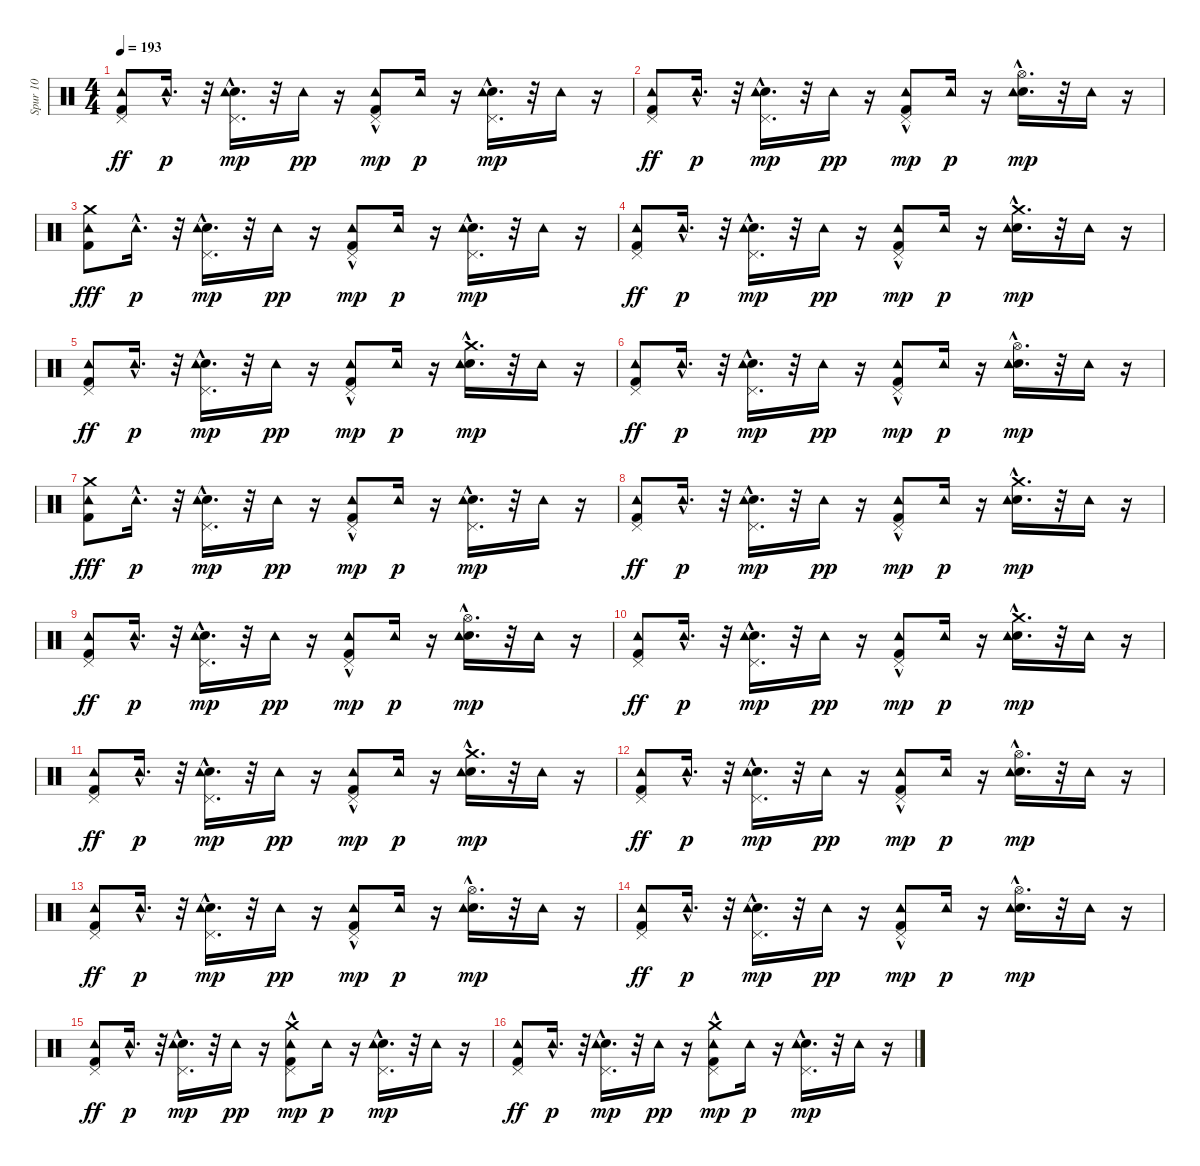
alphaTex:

\track ("Spur 10" "Spur 10") {instrument percussion}
\staff {score}
\articulation defaults
\ts (4 4)
\tempo 193
\clef neutral
\ks c
("Tambourine (hit)" "Kick (hit) 2" "Pedal Hi-Hat (hit)").8{dy ff} "Tambourine (hit)"{hac}.16{d dy p} r.32 ("Pedal Hi-Hat (hit)" "Snare (hit) 2"{hac} "Tambourine (hit)").16{d dy mp} r.32 "Tambourine (hit)".16{dy pp} r.16 ("Kick (hit) 2" "Pedal Hi-Hat (hit)" "Tambourine (hit)"{hac}).8{dy mp} "Tambourine (hit)".16{dy p} r.16 ("Snare (hit) 2"{hac} "Pedal Hi-Hat (hit)"{hac} "Tambourine (hit)").16{d dy mp} r.32 "Tambourine (hit)".16 r.16 |
("Tambourine (hit)" "Kick (hit) 2" "Pedal Hi-Hat (hit)").8{dy ff} "Tambourine (hit)"{hac}.16{d dy p} r.32 ("Pedal Hi-Hat (hit)" "Snare (hit) 2"{hac} "Tambourine (hit)").16{d dy mp} r.32 "Tambourine (hit)".16{dy pp} r.16 ("Kick (hit) 2" "Pedal Hi-Hat (hit)" "Tambourine (hit)"{hac}).8{dy mp} "Tambourine (hit)".16{dy p} r.16 ("Snare (hit) 2"{hac} "Hi-Hat (open)"{hac} "Tambourine (hit)").16{d dy mp} r.32 "Tambourine (hit)".16 r.16 |
("Tambourine (hit)" "Kick (hit) 2" "Crash medium (hit)").8{dy fff} "Tambourine (hit)"{hac}.16{d dy p} r.32 ("Pedal Hi-Hat (hit)" "Snare (hit) 2"{hac} "Tambourine (hit)").16{d dy mp} r.32 "Tambourine (hit)".16{dy pp} r.16 ("Kick (hit) 2" "Pedal Hi-Hat (hit)" "Tambourine (hit)"{hac}).8{dy mp} "Tambourine (hit)".16{dy p} r.16 ("Snare (hit) 2"{hac} "Pedal Hi-Hat (hit)"{hac} "Tambourine (hit)").16{d dy mp} r.32 "Tambourine (hit)".16 r.16 |
("Tambourine (hit)" "Kick (hit) 2" "Pedal Hi-Hat (hit)").8{dy ff} "Tambourine (hit)"{hac}.16{d dy p} r.32 ("Pedal Hi-Hat (hit)" "Snare (hit) 2"{hac} "Tambourine (hit)").16{d dy mp} r.32 "Tambourine (hit)".16{dy pp} r.16 ("Kick (hit) 2" "Pedal Hi-Hat (hit)" "Tambourine (hit)"{hac}).8{dy mp} "Tambourine (hit)".16{dy p} r.16 ("Snare (hit) 2"{hac} "Crash medium (hit)"{hac} "Tambourine (hit)").16{d dy mp} r.32 "Tambourine (hit)".16 r.16 |
("Tambourine (hit)" "Kick (hit) 2" "Pedal Hi-Hat (hit)").8{dy ff} "Tambourine (hit)"{hac}.16{d dy p} r.32 ("Pedal Hi-Hat (hit)" "Snare (hit) 2"{hac} "Tambourine (hit)").16{d dy mp} r.32 "Tambourine (hit)".16{dy pp} r.16 ("Kick (hit) 2" "Pedal Hi-Hat (hit)" "Tambourine (hit)"{hac}).8{dy mp} "Tambourine (hit)".16{dy p} r.16 ("Snare (hit) 2"{hac} "Crash medium (hit)"{hac} "Tambourine (hit)").16{d dy mp} r.32 "Tambourine (hit)".16 r.16 |
("Tambourine (hit)" "Kick (hit) 2" "Pedal Hi-Hat (hit)").8{dy ff} "Tambourine (hit)"{hac}.16{d dy p} r.32 ("Pedal Hi-Hat (hit)" "Snare (hit) 2"{hac} "Tambourine (hit)").16{d dy mp} r.32 "Tambourine (hit)".16{dy pp} r.16 ("Kick (hit) 2" "Pedal Hi-Hat (hit)" "Tambourine (hit)"{hac}).8{dy mp} "Tambourine (hit)".16{dy p} r.16 ("Snare (hit) 2"{hac} "Hi-Hat (open)"{hac} "Tambourine (hit)").16{d dy mp} r.32 "Tambourine (hit)".16 r.16 |
("Tambourine (hit)" "Kick (hit) 2" "Crash medium (hit)").8{dy fff} "Tambourine (hit)"{hac}.16{d dy p} r.32 ("Pedal Hi-Hat (hit)" "Snare (hit) 2"{hac} "Tambourine (hit)").16{d dy mp} r.32 "Tambourine (hit)".16{dy pp} r.16 ("Kick (hit) 2" "Pedal Hi-Hat (hit)" "Tambourine (hit)"{hac}).8{dy mp} "Tambourine (hit)".16{dy p} r.16 ("Snare (hit) 2"{hac} "Pedal Hi-Hat (hit)"{hac} "Tambourine (hit)").16{d dy mp} r.32 "Tambourine (hit)".16 r.16 |
("Tambourine (hit)" "Kick (hit) 2" "Pedal Hi-Hat (hit)").8{dy ff} "Tambourine (hit)"{hac}.16{d dy p} r.32 ("Pedal Hi-Hat (hit)" "Snare (hit) 2"{hac} "Tambourine (hit)").16{d dy mp} r.32 "Tambourine (hit)".16{dy pp} r.16 ("Kick (hit) 2" "Pedal Hi-Hat (hit)" "Tambourine (hit)"{hac}).8{dy mp} "Tambourine (hit)".16{dy p} r.16 ("Snare (hit) 2"{hac} "Crash medium (hit)"{hac} "Tambourine (hit)").16{d dy mp} r.32 "Tambourine (hit)".16 r.16 |
("Tambourine (hit)" "Kick (hit) 2" "Pedal Hi-Hat (hit)").8{dy ff} "Tambourine (hit)"{hac}.16{d dy p} r.32 ("Pedal Hi-Hat (hit)" "Snare (hit) 2"{hac} "Tambourine (hit)").16{d dy mp} r.32 "Tambourine (hit)".16{dy pp} r.16 ("Kick (hit) 2" "Pedal Hi-Hat (hit)" "Tambourine (hit)"{hac}).8{dy mp} "Tambourine (hit)".16{dy p} r.16 ("Snare (hit) 2"{hac} "Hi-Hat (open)"{hac} "Tambourine (hit)").16{d dy mp} r.32 "Tambourine (hit)".16 r.16 |
("Tambourine (hit)" "Kick (hit) 2" "Pedal Hi-Hat (hit)").8{dy ff} "Tambourine (hit)"{hac}.16{d dy p} r.32 ("Pedal Hi-Hat (hit)" "Snare (hit) 2"{hac} "Tambourine (hit)").16{d dy mp} r.32 "Tambourine (hit)".16{dy pp} r.16 ("Kick (hit) 2" "Pedal Hi-Hat (hit)" "Tambourine (hit)"{hac}).8{dy mp} "Tambourine (hit)".16{dy p} r.16 ("Snare (hit) 2"{hac} "Crash medium (hit)"{hac} "Tambourine (hit)").16{d dy mp} r.32 "Tambourine (hit)".16 r.16 |
("Tambourine (hit)" "Kick (hit) 2" "Pedal Hi-Hat (hit)").8{dy ff} "Tambourine (hit)"{hac}.16{d dy p} r.32 ("Pedal Hi-Hat (hit)" "Snare (hit) 2"{hac} "Tambourine (hit)").16{d dy mp} r.32 "Tambourine (hit)".16{dy pp} r.16 ("Kick (hit) 2" "Pedal Hi-Hat (hit)" "Tambourine (hit)"{hac}).8{dy mp} "Tambourine (hit)".16{dy p} r.16 ("Snare (hit) 2"{hac} "Crash medium (hit)"{hac} "Tambourine (hit)").16{d dy mp} r.32 "Tambourine (hit)".16 r.16 |
("Tambourine (hit)" "Kick (hit) 2" "Pedal Hi-Hat (hit)").8{dy ff} "Tambourine (hit)"{hac}.16{d dy p} r.32 ("Pedal Hi-Hat (hit)" "Snare (hit) 2"{hac} "Tambourine (hit)").16{d dy mp} r.32 "Tambourine (hit)".16{dy pp} r.16 ("Kick (hit) 2" "Pedal Hi-Hat (hit)" "Tambourine (hit)"{hac}).8{dy mp} "Tambourine (hit)".16{dy p} r.16 ("Snare (hit) 2"{hac} "Hi-Hat (open)"{hac} "Tambourine (hit)").16{d dy mp} r.32 "Tambourine (hit)".16 r.16 |
("Tambourine (hit)" "Kick (hit) 2" "Pedal Hi-Hat (hit)").8{dy ff} "Tambourine (hit)"{hac}.16{d dy p} r.32 ("Pedal Hi-Hat (hit)" "Snare (hit) 2"{hac} "Tambourine (hit)").16{d dy mp} r.32 "Tambourine (hit)".16{dy pp} r.16 ("Kick (hit) 2" "Pedal Hi-Hat (hit)" "Tambourine (hit)"{hac}).8{dy mp} "Tambourine (hit)".16{dy p} r.16 ("Snare (hit) 2"{hac} "Hi-Hat (open)"{hac} "Tambourine (hit)").16{d dy mp} r.32 "Tambourine (hit)".16 r.16 |
("Tambourine (hit)" "Kick (hit) 2" "Pedal Hi-Hat (hit)").8{dy ff} "Tambourine (hit)"{hac}.16{d dy p} r.32 ("Pedal Hi-Hat (hit)" "Snare (hit) 2"{hac} "Tambourine (hit)").16{d dy mp} r.32 "Tambourine (hit)".16{dy pp} r.16 ("Kick (hit) 2" "Pedal Hi-Hat (hit)" "Tambourine (hit)"{hac}).8{dy mp} "Tambourine (hit)".16{dy p} r.16 ("Snare (hit) 2"{hac} "Hi-Hat (open)"{hac} "Tambourine (hit)").16{d dy mp} r.32 "Tambourine (hit)".16 r.16 |
("Tambourine (hit)" "Kick (hit) 2" "Pedal Hi-Hat (hit)").8{dy ff} "Tambourine (hit)"{hac}.16{d dy p} r.32 ("Pedal Hi-Hat (hit)" "Snare (hit) 2"{hac} "Tambourine (hit)").16{d dy mp} r.32 "Tambourine (hit)".16{dy pp} r.16 ("Crash medium (hit)"{hac} "Kick (hit) 2" "Pedal Hi-Hat (hit)" "Tambourine (hit)"{hac}).8{dy mp} "Tambourine (hit)".16{dy p} r.16 ("Snare (hit) 2"{hac} "Pedal Hi-Hat (hit)"{hac} "Tambourine (hit)").16{d dy mp} r.32 "Tambourine (hit)".16 r.16 |
("Tambourine (hit)" "Kick (hit) 2" "Pedal Hi-Hat (hit)").8{dy ff} "Tambourine (hit)"{hac}.16{d dy p} r.32 ("Pedal Hi-Hat (hit)" "Snare (hit) 2"{hac} "Tambourine (hit)").16{d dy mp} r.32 "Tambourine (hit)".16{dy pp} r.16 ("Crash medium (hit)"{hac} "Kick (hit) 2" "Pedal Hi-Hat (hit)" "Tambourine (hit)"{hac}).8{dy mp} "Tambourine (hit)".16{dy p} r.16 ("Snare (hit) 2"{hac} "Pedal Hi-Hat (hit)"{hac} "Tambourine (hit)").16{d dy mp} r.32 "Tambourine (hit)".16 r.16
